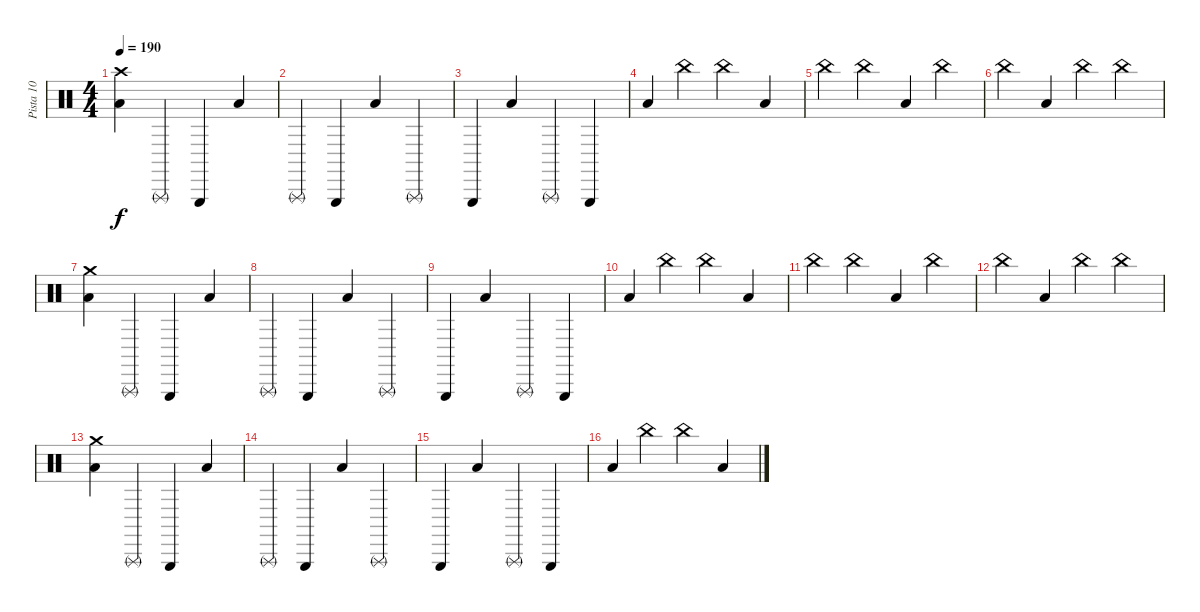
\track ("Pista 10" "Pista 10") {instrument percussion}
\staff {score}
\articulation defaults
\ts (4 4)
\tempo 190
\clef neutral
\ks c
("Low Floor Tom (hit)" "Crash high (hit)").4{dy f} "Triangle (rnute)".4 "Triangle (hit)".4 "Low Floor Tom (hit)".4 |
"Triangle (rnute)".4 "Triangle (hit)".4 "Low Floor Tom (hit)".4 "Triangle (rnute)".4 |
"Triangle (hit)".4 "Low Floor Tom (hit)".4 "Triangle (rnute)".4 "Triangle (hit)".4 |
"Low Floor Tom (hit)".4 "China (hit)".4 "China (hit)".4 "Low Floor Tom (hit)".4 |
"China (hit)".4 "China (hit)".4 "Low Floor Tom (hit)".4 "China (hit)".4 |
"China (hit)".4 "Low Floor Tom (hit)".4 "China (hit)".4 "China (hit)".4 |
("Crash medium (hit)" "Low Floor Tom (hit)").4 "Triangle (rnute)".4 "Triangle (hit)".4 "Low Floor Tom (hit)".4 |
"Triangle (rnute)".4 "Triangle (hit)".4 "Low Floor Tom (hit)".4 "Triangle (rnute)".4 |
"Triangle (hit)".4 "Low Floor Tom (hit)".4 "Triangle (rnute)".4 "Triangle (hit)".4 |
"Low Floor Tom (hit)".4 "China (hit)".4 "China (hit)".4 "Low Floor Tom (hit)".4 |
"China (hit)".4 "China (hit)".4 "Low Floor Tom (hit)".4 "China (hit)".4 |
"China (hit)".4 "Low Floor Tom (hit)".4 "China (hit)".4 "China (hit)".4 |
("Crash medium (hit)" "Low Floor Tom (hit)").4 "Triangle (rnute)".4 "Triangle (hit)".4 "Low Floor Tom (hit)".4 |
"Triangle (rnute)".4 "Triangle (hit)".4 "Low Floor Tom (hit)".4 "Triangle (rnute)".4 |
"Triangle (hit)".4 "Low Floor Tom (hit)".4 "Triangle (rnute)".4 "Triangle (hit)".4 |
"Low Floor Tom (hit)".4 "China (hit)".4 "China (hit)".4 "Low Floor Tom (hit)".4
